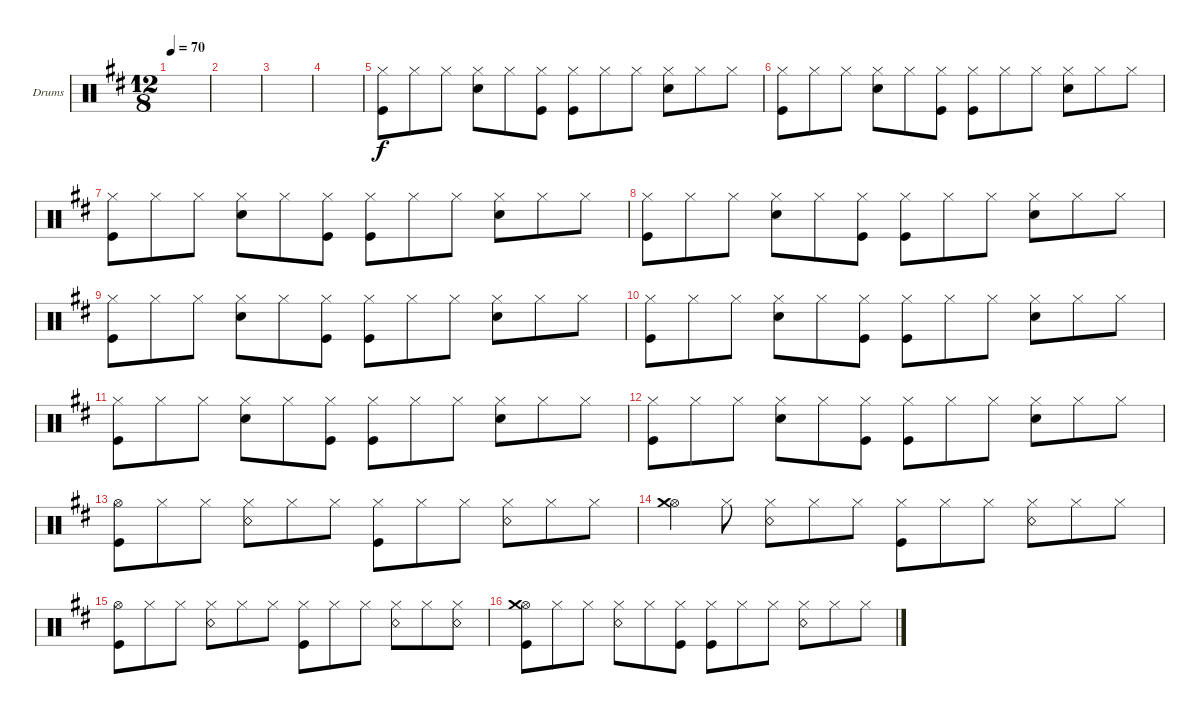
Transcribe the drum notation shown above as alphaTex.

\defaultSystemsLayout 4
\bracketExtendMode groupsimilarinstruments
\firstSystemTrackNameOrientation horizontal
\otherSystemsTrackNameOrientation horizontal
\track ("Drumkit" "Drums") {instrument percussion}
\staff {score}
\articulation defaults
\ts (12 8)
\tempo 70
\clef neutral
\ks d
|
|
|
|
("Hi-Hat (closed)" "Kick (hit)").8 "Hi-Hat (closed)".8 "Hi-Hat (closed)".8 ("Hi-Hat (closed)" "Snare (hit) 2").8 "Hi-Hat (closed)".8 ("Hi-Hat (closed)" "Kick (hit)").8 ("Hi-Hat (closed)" "Kick (hit)").8 "Hi-Hat (closed)".8 "Hi-Hat (closed)".8 ("Snare (hit) 2" "Hi-Hat (closed)").8 "Hi-Hat (closed)".8 "Hi-Hat (closed)".8 |
("Hi-Hat (closed)" "Kick (hit)").8 "Hi-Hat (closed)".8 "Hi-Hat (closed)".8 ("Hi-Hat (closed)" "Snare (hit) 2").8 "Hi-Hat (closed)".8 ("Hi-Hat (closed)" "Kick (hit)").8 ("Hi-Hat (closed)" "Kick (hit)").8 "Hi-Hat (closed)".8 "Hi-Hat (closed)".8 ("Snare (hit) 2" "Hi-Hat (closed)").8 "Hi-Hat (closed)".8 "Hi-Hat (closed)".8 |
("Hi-Hat (closed)" "Kick (hit)").8 "Hi-Hat (closed)".8 "Hi-Hat (closed)".8 ("Hi-Hat (closed)" "Snare (hit) 2").8 "Hi-Hat (closed)".8 ("Hi-Hat (closed)" "Kick (hit)").8 ("Hi-Hat (closed)" "Kick (hit)").8 "Hi-Hat (closed)".8 "Hi-Hat (closed)".8 ("Snare (hit) 2" "Hi-Hat (closed)").8 "Hi-Hat (closed)".8 "Hi-Hat (closed)".8 |
("Hi-Hat (closed)" "Kick (hit)").8 "Hi-Hat (closed)".8 "Hi-Hat (closed)".8 ("Hi-Hat (closed)" "Snare (hit) 2").8 "Hi-Hat (closed)".8 ("Hi-Hat (closed)" "Kick (hit)").8 ("Hi-Hat (closed)" "Kick (hit)").8 "Hi-Hat (closed)".8 "Hi-Hat (closed)".8 ("Snare (hit) 2" "Hi-Hat (closed)").8 "Hi-Hat (closed)".8 "Hi-Hat (closed)".8 |
("Hi-Hat (closed)" "Kick (hit)").8 "Hi-Hat (closed)".8 "Hi-Hat (closed)".8 ("Hi-Hat (closed)" "Snare (hit) 2").8 "Hi-Hat (closed)".8 ("Hi-Hat (closed)" "Kick (hit)").8 ("Hi-Hat (closed)" "Kick (hit)").8 "Hi-Hat (closed)".8 "Hi-Hat (closed)".8 ("Snare (hit) 2" "Hi-Hat (closed)").8 "Hi-Hat (closed)".8 "Hi-Hat (closed)".8 |
("Hi-Hat (closed)" "Kick (hit)").8 "Hi-Hat (closed)".8 "Hi-Hat (closed)".8 ("Hi-Hat (closed)" "Snare (hit) 2").8 "Hi-Hat (closed)".8 ("Hi-Hat (closed)" "Kick (hit)").8 ("Hi-Hat (closed)" "Kick (hit)").8 "Hi-Hat (closed)".8 "Hi-Hat (closed)".8 ("Snare (hit) 2" "Hi-Hat (closed)").8 "Hi-Hat (closed)".8 "Hi-Hat (closed)".8 |
("Hi-Hat (closed)" "Kick (hit)").8 "Hi-Hat (closed)".8 "Hi-Hat (closed)".8 ("Hi-Hat (closed)" "Snare (hit) 2").8 "Hi-Hat (closed)".8 ("Hi-Hat (closed)" "Kick (hit)").8 ("Hi-Hat (closed)" "Kick (hit)").8 "Hi-Hat (closed)".8 "Hi-Hat (closed)".8 ("Snare (hit) 2" "Hi-Hat (closed)").8 "Hi-Hat (closed)".8 "Hi-Hat (closed)".8 |
("Hi-Hat (closed)" "Kick (hit)").8 "Hi-Hat (closed)".8 "Hi-Hat (closed)".8 ("Hi-Hat (closed)" "Snare (hit) 2").8 "Hi-Hat (closed)".8 ("Hi-Hat (closed)" "Kick (hit)").8 ("Hi-Hat (closed)" "Kick (hit)").8 "Hi-Hat (closed)".8 "Hi-Hat (closed)".8 ("Snare (hit) 2" "Hi-Hat (closed)").8 "Hi-Hat (closed)".8 "Hi-Hat (closed)".8 |
("Hi-Hat (open)" "Kick (hit)").8 "Hi-Hat (closed)".8 "Hi-Hat (closed)".8 ("Hi-Hat (closed)" "Snare (rim shot)").8 "Hi-Hat (closed)".8 "Hi-Hat (closed)".8 ("Hi-Hat (closed)" "Kick (hit)").8 "Hi-Hat (closed)".8 "Hi-Hat (closed)".8 ("Hi-Hat (closed)" "Snare (rim shot)").8 "Hi-Hat (closed)".8 "Hi-Hat (closed)".8 |
("Hi-Hat (open)" "Crash medium (hit)").4 "Hi-Hat (closed)".8 ("Hi-Hat (closed)" "Snare (rim shot)").8 "Hi-Hat (closed)".8 "Hi-Hat (closed)".8 ("Hi-Hat (closed)" "Kick (hit)").8 "Hi-Hat (closed)".8 "Hi-Hat (closed)".8 ("Hi-Hat (closed)" "Snare (rim shot)").8 "Hi-Hat (closed)".8 "Hi-Hat (closed)".8 |
("Hi-Hat (open)" "Kick (hit)").8 "Hi-Hat (closed)".8 "Hi-Hat (closed)".8 ("Hi-Hat (closed)" "Snare (rim shot)").8 "Hi-Hat (closed)".8 "Hi-Hat (closed)".8 ("Hi-Hat (closed)" "Kick (hit)").8 "Hi-Hat (closed)".8 "Hi-Hat (closed)".8 ("Hi-Hat (closed)" "Snare (rim shot)").8 "Hi-Hat (closed)".8 ("Hi-Hat (closed)" "Snare (rim shot)").8 |
("Hi-Hat (open)" "Kick (hit)" "Crash medium (hit)").8 "Hi-Hat (closed)".8 "Hi-Hat (closed)".8 ("Hi-Hat (closed)" "Snare (rim shot)").8 "Hi-Hat (closed)".8 ("Hi-Hat (closed)" "Kick (hit)").8 ("Hi-Hat (closed)" "Kick (hit)").8 "Hi-Hat (closed)".8 "Hi-Hat (closed)".8 ("Snare (rim shot)" "Hi-Hat (closed)").8 "Hi-Hat (closed)".8 "Hi-Hat (closed)".8
